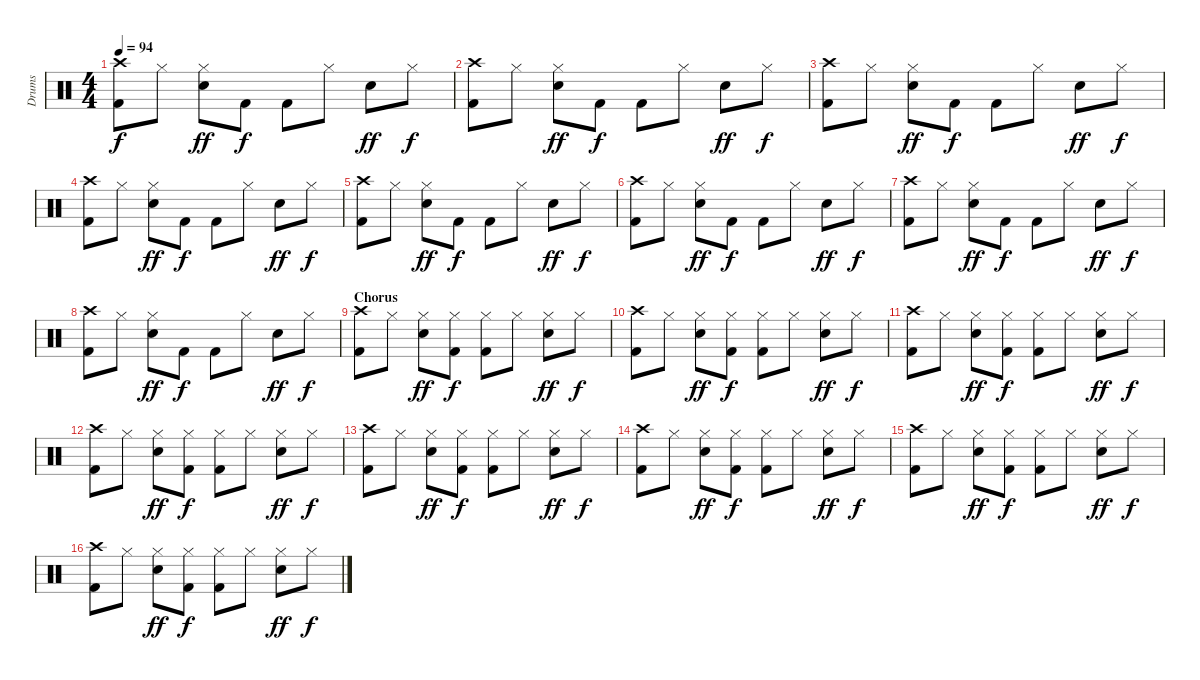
\track ("Drums" "Drums") {instrument percussion}
\staff {score}
\articulation defaults
\ts (4 4)
\tempo 94
\clef neutral
\ks c
("Crash high (hit)" "Kick (hit) 2").8{dy f} "Hi-Hat (closed)".8 ("Hi-Hat (closed)" "Electric Snare (hit)").8{dy ff} "Kick (hit) 2".8{dy f} "Kick (hit) 2".8 "Hi-Hat (closed)".8 "Electric Snare (hit)".8{dy ff} "Hi-Hat (closed)".8{dy f} |
("Crash high (hit)" "Kick (hit) 2").8 "Hi-Hat (closed)".8 ("Hi-Hat (closed)" "Electric Snare (hit)").8{dy ff} "Kick (hit) 2".8{dy f} "Kick (hit) 2".8 "Hi-Hat (closed)".8 "Electric Snare (hit)".8{dy ff} "Hi-Hat (closed)".8{dy f} |
("Crash high (hit)" "Kick (hit) 2").8 "Hi-Hat (closed)".8 ("Hi-Hat (closed)" "Electric Snare (hit)").8{dy ff} "Kick (hit) 2".8{dy f} "Kick (hit) 2".8 "Hi-Hat (closed)".8 "Electric Snare (hit)".8{dy ff} "Hi-Hat (closed)".8{dy f} |
("Crash high (hit)" "Kick (hit) 2").8 "Hi-Hat (closed)".8 ("Hi-Hat (closed)" "Electric Snare (hit)").8{dy ff} "Kick (hit) 2".8{dy f} "Kick (hit) 2".8 "Hi-Hat (closed)".8 "Electric Snare (hit)".8{dy ff} "Hi-Hat (closed)".8{dy f} |
("Crash high (hit)" "Kick (hit) 2").8 "Hi-Hat (closed)".8 ("Hi-Hat (closed)" "Electric Snare (hit)").8{dy ff} "Kick (hit) 2".8{dy f} "Kick (hit) 2".8 "Hi-Hat (closed)".8 "Electric Snare (hit)".8{dy ff} "Hi-Hat (closed)".8{dy f} |
("Crash high (hit)" "Kick (hit) 2").8 "Hi-Hat (closed)".8 ("Hi-Hat (closed)" "Electric Snare (hit)").8{dy ff} "Kick (hit) 2".8{dy f} "Kick (hit) 2".8 "Hi-Hat (closed)".8 "Electric Snare (hit)".8{dy ff} "Hi-Hat (closed)".8{dy f} |
("Crash high (hit)" "Kick (hit) 2").8 "Hi-Hat (closed)".8 ("Hi-Hat (closed)" "Electric Snare (hit)").8{dy ff} "Kick (hit) 2".8{dy f} "Kick (hit) 2".8 "Hi-Hat (closed)".8 "Electric Snare (hit)".8{dy ff} "Hi-Hat (closed)".8{dy f} |
("Crash high (hit)" "Kick (hit) 2").8 "Hi-Hat (closed)".8 ("Hi-Hat (closed)" "Electric Snare (hit)").8{dy ff} "Kick (hit) 2".8{dy f} "Kick (hit) 2".8 "Hi-Hat (closed)".8 "Electric Snare (hit)".8{dy ff} "Hi-Hat (closed)".8{dy f} |
\section ("" "Chorus")
("Crash high (hit)" "Kick (hit) 2").8 "Hi-Hat (closed)".8 ("Hi-Hat (closed)" "Electric Snare (hit)").8{dy ff} ("Hi-Hat (closed)" "Kick (hit) 2").8{dy f} ("Hi-Hat (closed)" "Kick (hit) 2").8 "Hi-Hat (closed)".8 ("Hi-Hat (closed)" "Electric Snare (hit)").8{dy ff} "Hi-Hat (closed)".8{dy f} |
("Crash high (hit)" "Kick (hit) 2").8 "Hi-Hat (closed)".8 ("Hi-Hat (closed)" "Electric Snare (hit)").8{dy ff} ("Hi-Hat (closed)" "Kick (hit) 2").8{dy f} ("Hi-Hat (closed)" "Kick (hit) 2").8 "Hi-Hat (closed)".8 ("Hi-Hat (closed)" "Electric Snare (hit)").8{dy ff} "Hi-Hat (closed)".8{dy f} |
("Crash high (hit)" "Kick (hit) 2").8 "Hi-Hat (closed)".8 ("Hi-Hat (closed)" "Electric Snare (hit)").8{dy ff} ("Hi-Hat (closed)" "Kick (hit) 2").8{dy f} ("Hi-Hat (closed)" "Kick (hit) 2").8 "Hi-Hat (closed)".8 ("Hi-Hat (closed)" "Electric Snare (hit)").8{dy ff} "Hi-Hat (closed)".8{dy f} |
("Crash high (hit)" "Kick (hit) 2").8 "Hi-Hat (closed)".8 ("Hi-Hat (closed)" "Electric Snare (hit)").8{dy ff} ("Hi-Hat (closed)" "Kick (hit) 2").8{dy f} ("Hi-Hat (closed)" "Kick (hit) 2").8 "Hi-Hat (closed)".8 ("Hi-Hat (closed)" "Electric Snare (hit)").8{dy ff} "Hi-Hat (closed)".8{dy f} |
("Crash high (hit)" "Kick (hit) 2").8 "Hi-Hat (closed)".8 ("Hi-Hat (closed)" "Electric Snare (hit)").8{dy ff} ("Hi-Hat (closed)" "Kick (hit) 2").8{dy f} ("Hi-Hat (closed)" "Kick (hit) 2").8 "Hi-Hat (closed)".8 ("Hi-Hat (closed)" "Electric Snare (hit)").8{dy ff} "Hi-Hat (closed)".8{dy f} |
("Crash high (hit)" "Kick (hit) 2").8 "Hi-Hat (closed)".8 ("Hi-Hat (closed)" "Electric Snare (hit)").8{dy ff} ("Hi-Hat (closed)" "Kick (hit) 2").8{dy f} ("Hi-Hat (closed)" "Kick (hit) 2").8 "Hi-Hat (closed)".8 ("Hi-Hat (closed)" "Electric Snare (hit)").8{dy ff} "Hi-Hat (closed)".8{dy f} |
("Crash high (hit)" "Kick (hit) 2").8 "Hi-Hat (closed)".8 ("Hi-Hat (closed)" "Electric Snare (hit)").8{dy ff} ("Hi-Hat (closed)" "Kick (hit) 2").8{dy f} ("Hi-Hat (closed)" "Kick (hit) 2").8 "Hi-Hat (closed)".8 ("Hi-Hat (closed)" "Electric Snare (hit)").8{dy ff} "Hi-Hat (closed)".8{dy f} |
("Crash high (hit)" "Kick (hit) 2").8 "Hi-Hat (closed)".8 ("Hi-Hat (closed)" "Electric Snare (hit)").8{dy ff} ("Hi-Hat (closed)" "Kick (hit) 2").8{dy f} ("Hi-Hat (closed)" "Kick (hit) 2").8 "Hi-Hat (closed)".8 ("Hi-Hat (closed)" "Electric Snare (hit)").8{dy ff} "Hi-Hat (closed)".8{dy f}
